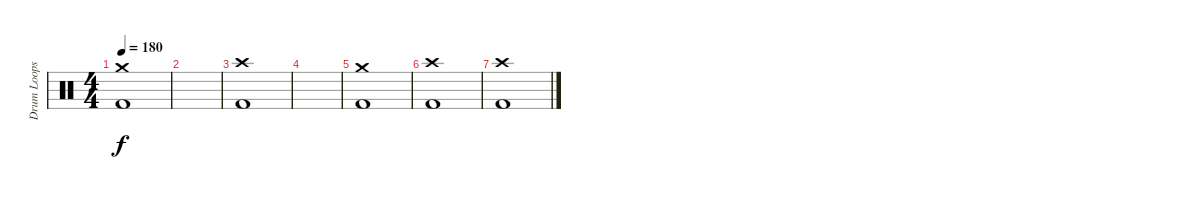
\track ("Drum Loops (Дурачок)" "Drum Loops") {instrument percussion}
\staff {score}
\articulation defaults
\ts (4 4)
\tempo 180
\clef neutral
\ks c
("Kick (hit) 2" "Crash medium (hit)").1{dy f volume 5} |
|
("Kick (hit) 2" "Crash high (hit)").1 |
|
("Kick (hit) 2" "Crash medium (hit)").1{volume 0} |
("Kick (hit) 2" "Crash high (hit)").1 |
("Kick (hit) 2" "Crash high (hit)").1
